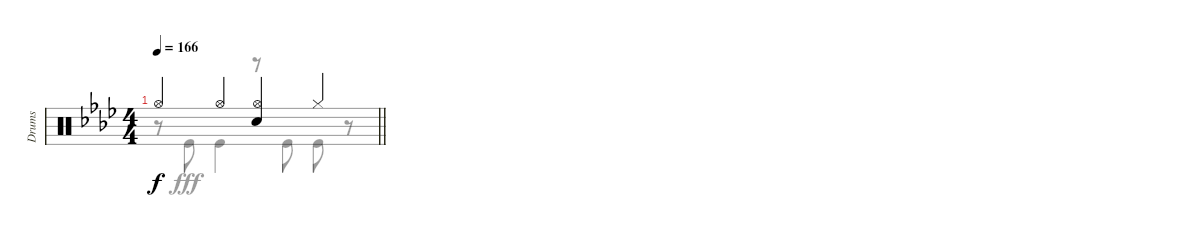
\track ("Drums" "Drums") {instrument percussion}
\staff {score}
\articulation defaults
\voice
\ts (4 4)
\tempo 166
\clef neutral
\barLineRight lightlight
\ks ab "Hi-Hat (open)".4{dy f} "Hi-Hat (open)".4
("Hi-Hat (open)" "Snare (hit) 2").4 "Hi-Hat (closed)".4
\voice
\clef neutral
\ottava regular
\simile none
\barLineRight lightlight
\ks ab
r.8{dy fff} "Kick (hit)".8 "Kick (hit)".4 r.8 "Kick (hit)".8 "Kick (hit)".8 r.8
